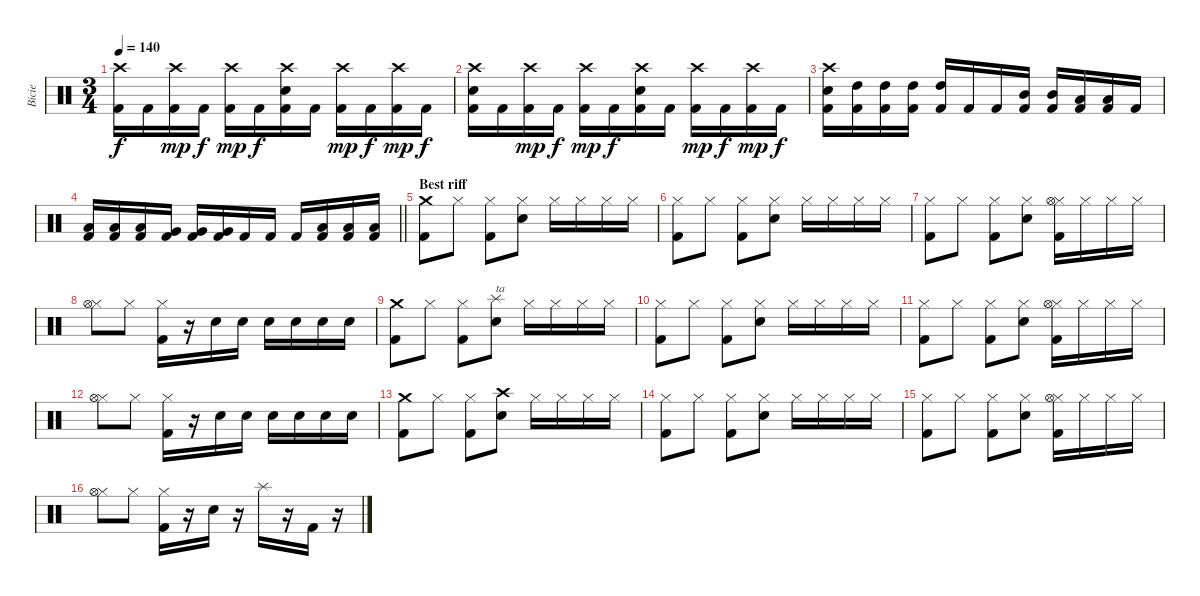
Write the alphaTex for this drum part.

\track ("Bicie" "Bicie") {instrument percussion}
\staff {score}
\articulation defaults
\ts (3 4)
\tempo 140
\clef neutral
\ks c
("Crash high (hit)" "Kick (hit) 2").16{dy f} "Kick (hit) 2".16 ("Crash high (hit)" "Kick (hit) 2").16{dy mp} "Kick (hit) 2".16{dy f} ("Crash high (hit)" "Kick (hit) 2").16{dy mp} "Kick (hit) 2".16{dy f} ("Crash high (hit)" "Snare (hit) 2" "Kick (hit) 2").16 "Kick (hit) 2".16 ("Crash high (hit)" "Kick (hit) 2").16{dy mp} "Kick (hit) 2".16{dy f} ("Crash high (hit)" "Kick (hit) 2").16{dy mp} "Kick (hit) 2".16{dy f} |
("Crash high (hit)" "Snare (hit) 2" "Kick (hit) 2").16 "Kick (hit) 2".16 ("Crash high (hit)" "Kick (hit) 2").16{dy mp} "Kick (hit) 2".16{dy f} ("Crash high (hit)" "Kick (hit) 2").16{dy mp} "Kick (hit) 2".16{dy f} ("Crash high (hit)" "Snare (hit) 2" "Kick (hit) 2").16 "Kick (hit) 2".16 ("Crash high (hit)" "Kick (hit) 2").16{dy mp} "Kick (hit) 2".16{dy f} ("Crash high (hit)" "Kick (hit) 2").16{dy mp} "Kick (hit) 2".16{dy f} |
("Crash high (hit)" "Snare (hit) 2" "Kick (hit) 2").16 ("High Tom (hit)" "Kick (hit) 2").16 ("High Tom (hit)" "Kick (hit) 2").16 ("High Tom (hit)" "Kick (hit) 2").16 ("High Tom (hit)" "Kick (hit) 2").16 "Kick (hit) 2".16 "Kick (hit) 2".16 ("Mid Tom (hit)" "Kick (hit) 2").16 ("Mid Tom (hit)" "Kick (hit) 2").16 ("Low Tom (hit)" "Kick (hit) 2").16 ("Low Tom (hit)" "Kick (hit) 2").16 "Kick (hit) 2".16 |
\barLineRight lightlight
("Low Tom (hit)" "Kick (hit) 2").16 ("Low Tom (hit)" "Kick (hit) 2").16 ("Low Tom (hit)" "Kick (hit) 2").16 ("Very Low Tom (hit)" "Kick (hit) 2").16 ("Very Low Tom (hit)" "Kick (hit) 2").16 ("Very Low Tom (hit)" "Kick (hit) 2").16 "Kick (hit) 2".16 "Kick (hit) 2".16 "Kick (hit) 2".16 ("Low Floor Tom (hit)" "Kick (hit) 2").16 ("Low Floor Tom (hit)" "Kick (hit) 2").16 ("Low Floor Tom (hit)" "Kick (hit) 2").16 |
\section ("" "Best riff")
("Crash medium (hit)" "Kick (hit) 2").8{volume 15} "Hi-Hat (closed)".8 ("Hi-Hat (closed)" "Kick (hit) 2").8 ("Hi-Hat (closed)" "Snare (hit) 2").8 "Hi-Hat (closed)".16 "Hi-Hat (closed)".16 "Hi-Hat (closed)".16 "Hi-Hat (closed)".16 |
("Hi-Hat (closed)" "Kick (hit) 2").8 "Hi-Hat (closed)".8 ("Hi-Hat (closed)" "Kick (hit) 2").8 ("Hi-Hat (closed)" "Snare (hit) 2").8 "Hi-Hat (closed)".16 "Hi-Hat (closed)".16 "Hi-Hat (closed)".16 "Hi-Hat (closed)".16 |
("Hi-Hat (closed)" "Kick (hit) 2").8 "Hi-Hat (closed)".8 ("Hi-Hat (closed)" "Kick (hit) 2").8 ("Hi-Hat (closed)" "Snare (hit) 2").8 ("Hi-Hat (closed)" "Hi-Hat (open)" "Kick (hit) 2").16 "Hi-Hat (closed)".16 "Hi-Hat (closed)".16 "Hi-Hat (closed)".16 |
("Hi-Hat (closed)" "Hi-Hat (open)").8 "Hi-Hat (closed)".8 ("Hi-Hat (closed)" "Kick (hit) 2").16 r.16 "Snare (hit) 2".16 "Snare (hit) 2".16 "Snare (hit) 2".16 "Snare (hit) 2".16 "Snare (hit) 2".16 "Snare (hit) 2".16 |
("Crash medium (hit)" "Kick (hit) 2").8{volume 15} "Hi-Hat (closed)".8 ("Hi-Hat (closed)" "Kick (hit) 2").8 ("Splash (hit)" "Snare (hit) 2").8{txt "ta"} "Hi-Hat (closed)".16 "Hi-Hat (closed)".16 "Hi-Hat (closed)".16 "Hi-Hat (closed)".16 |
("Hi-Hat (closed)" "Kick (hit) 2").8 "Hi-Hat (closed)".8 ("Hi-Hat (closed)" "Kick (hit) 2").8 ("Hi-Hat (closed)" "Snare (hit) 2").8 "Hi-Hat (closed)".16 "Hi-Hat (closed)".16 "Hi-Hat (closed)".16 "Hi-Hat (closed)".16 |
("Hi-Hat (closed)" "Kick (hit) 2").8 "Hi-Hat (closed)".8 ("Hi-Hat (closed)" "Kick (hit) 2").8 ("Hi-Hat (closed)" "Snare (hit) 2").8 ("Hi-Hat (closed)" "Hi-Hat (open)" "Kick (hit) 2").16 "Hi-Hat (closed)".16 "Hi-Hat (closed)".16 "Hi-Hat (closed)".16 |
("Hi-Hat (closed)" "Hi-Hat (open)").8 "Hi-Hat (closed)".8 ("Hi-Hat (closed)" "Kick (hit) 2").16 r.16 "Snare (hit) 2".16 "Snare (hit) 2".16 "Snare (hit) 2".16 "Snare (hit) 2".16 "Snare (hit) 2".16 "Snare (hit) 2".16 |
("Crash medium (hit)" "Kick (hit) 2").8{volume 15} "Hi-Hat (closed)".8 ("Hi-Hat (closed)" "Kick (hit) 2").8 ("Crash high (hit)" "Snare (hit) 2").8 "Hi-Hat (closed)".16 "Hi-Hat (closed)".16 "Hi-Hat (closed)".16 "Hi-Hat (closed)".16 |
("Hi-Hat (closed)" "Kick (hit) 2").8 "Hi-Hat (closed)".8 ("Hi-Hat (closed)" "Kick (hit) 2").8 ("Hi-Hat (closed)" "Snare (hit) 2").8 "Hi-Hat (closed)".16 "Hi-Hat (closed)".16 "Hi-Hat (closed)".16 "Hi-Hat (closed)".16 |
("Hi-Hat (closed)" "Kick (hit) 2").8 "Hi-Hat (closed)".8 ("Hi-Hat (closed)" "Kick (hit) 2").8 ("Hi-Hat (closed)" "Snare (hit) 2").8 ("Hi-Hat (closed)" "Hi-Hat (open)" "Kick (hit) 2").16 "Hi-Hat (closed)".16 "Hi-Hat (closed)".16 "Hi-Hat (closed)".16 |
("Hi-Hat (closed)" "Hi-Hat (open)").8 "Hi-Hat (closed)".8 ("Hi-Hat (closed)" "Kick (hit) 2").16 r.16 "Snare (hit) 2".16 r.16 "Splash (hit)".16 r.16 "Kick (hit) 2".16 r.16
